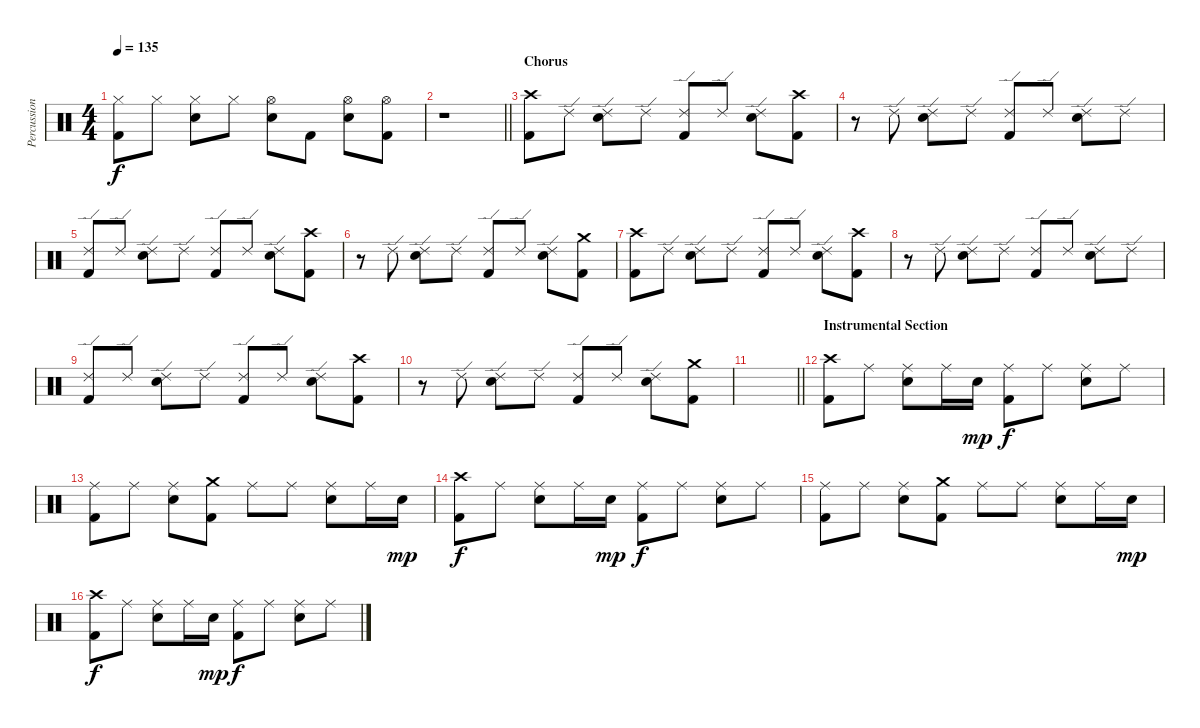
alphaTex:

\track ("Percussion" "Percussion") {instrument percussion}
\staff {score}
\articulation defaults
\ts (4 4)
\tempo 135
\clef neutral
\ks c
("Hi-Hat (closed)" "Kick (hit) 2").8{dy f} "Hi-Hat (closed)".8 ("Hi-Hat (closed)" "Snare (hit) 2").8 "Hi-Hat (closed)".8 ("Hi-Hat (open)" "Snare (hit) 2").8 "Kick (hit) 2".8 ("Hi-Hat (open)" "Snare (hit) 2").8 ("Hi-Hat (open)" "Kick (hit) 2").8 |
\barLineRight lightlight
r.1 |
\section ("" "Chorus")
("Crash high (hit)" "Kick (hit) 2").8 "Ride (edge) 2".8 ("Ride (edge) 2" "Snare (hit) 2").8 "Ride (edge) 2".8 ("Ride (edge) 2" "Kick (hit) 2").8 "Ride (edge) 2".8 ("Ride (edge) 2" "Snare (hit) 2").8 ("Crash high (hit)" "Kick (hit) 2").8 |
r.8 "Ride (edge) 2".8 ("Ride (edge) 2" "Snare (hit) 2").8 "Ride (edge) 2".8 ("Ride (edge) 2" "Kick (hit) 2").8 "Ride (edge) 2".8 ("Ride (edge) 2" "Snare (hit) 2").8 "Ride (edge) 2".8 |
("Ride (edge) 2" "Kick (hit) 2").8 "Ride (edge) 2".8 ("Ride (edge) 2" "Snare (hit) 2").8 "Ride (edge) 2".8 ("Ride (edge) 2" "Kick (hit) 2").8 "Ride (edge) 2".8 ("Ride (edge) 2" "Snare (hit) 2").8 ("Crash high (hit)" "Kick (hit) 2").8 |
r.8 "Ride (edge) 2".8 ("Ride (edge) 2" "Snare (hit) 2").8 "Ride (edge) 2".8 ("Ride (edge) 2" "Kick (hit) 2").8 "Ride (edge) 2".8 ("Ride (edge) 2" "Snare (hit) 2").8 ("Crash medium (hit)" "Kick (hit) 2").8 |
("Crash high (hit)" "Kick (hit) 2").8 "Ride (edge) 2".8 ("Ride (edge) 2" "Snare (hit) 2").8 "Ride (edge) 2".8 ("Ride (edge) 2" "Kick (hit) 2").8 "Ride (edge) 2".8 ("Ride (edge) 2" "Snare (hit) 2").8 ("Crash high (hit)" "Kick (hit) 2").8 |
r.8 "Ride (edge) 2".8 ("Ride (edge) 2" "Snare (hit) 2").8 "Ride (edge) 2".8 ("Ride (edge) 2" "Kick (hit) 2").8 "Ride (edge) 2".8 ("Ride (edge) 2" "Snare (hit) 2").8 "Ride (edge) 2".8 |
("Ride (edge) 2" "Kick (hit) 2").8 "Ride (edge) 2".8 ("Ride (edge) 2" "Snare (hit) 2").8 "Ride (edge) 2".8 ("Ride (edge) 2" "Kick (hit) 2").8 "Ride (edge) 2".8 ("Ride (edge) 2" "Snare (hit) 2").8 ("Crash high (hit)" "Kick (hit) 2").8 |
r.8 "Ride (edge) 2".8 ("Ride (edge) 2" "Snare (hit) 2").8 "Ride (edge) 2".8 ("Ride (edge) 2" "Kick (hit) 2").8 "Ride (edge) 2".8 ("Ride (edge) 2" "Snare (hit) 2").8 ("Crash medium (hit)" "Kick (hit) 2").8 |
\barLineRight lightlight
|
\section ("" "Instrumental Section")
("Crash high (hit)" "Kick (hit) 2").8 "Ride (middle)".8 ("Ride (middle)" "Snare (hit) 2").8 "Ride (middle)".16 "Snare (hit) 2".16{dy mp} ("Ride (middle)" "Kick (hit) 2").8{dy f} "Ride (middle)".8 ("Ride (middle)" "Snare (hit) 2").8 "Ride (middle)".8 |
("Ride (middle)" "Kick (hit) 2").8 "Ride (middle)".8 ("Ride (middle)" "Snare (hit) 2").8 ("Crash medium (hit)" "Kick (hit) 2").8 "Ride (middle)".8 "Ride (middle)".8 ("Ride (middle)" "Snare (hit) 2").8 "Ride (middle)".16 "Snare (hit) 2".16{dy mp} |
("Crash high (hit)" "Kick (hit) 2").8{dy f} "Ride (middle)".8 ("Ride (middle)" "Snare (hit) 2").8 "Ride (middle)".16 "Snare (hit) 2".16{dy mp} ("Ride (middle)" "Kick (hit) 2").8{dy f} "Ride (middle)".8 ("Ride (middle)" "Snare (hit) 2").8 "Ride (middle)".8 |
("Ride (middle)" "Kick (hit) 2").8 "Ride (middle)".8 ("Ride (middle)" "Snare (hit) 2").8 ("Crash medium (hit)" "Kick (hit) 2").8 "Ride (middle)".8 "Ride (middle)".8 ("Ride (middle)" "Snare (hit) 2").8 "Ride (middle)".16 "Snare (hit) 2".16{dy mp} |
("Crash high (hit)" "Kick (hit) 2").8{dy f} "Ride (middle)".8 ("Ride (middle)" "Snare (hit) 2").8 "Ride (middle)".16 "Snare (hit) 2".16{dy mp} ("Ride (middle)" "Kick (hit) 2").8{dy f} "Ride (middle)".8 ("Ride (middle)" "Snare (hit) 2").8 "Ride (middle)".8
